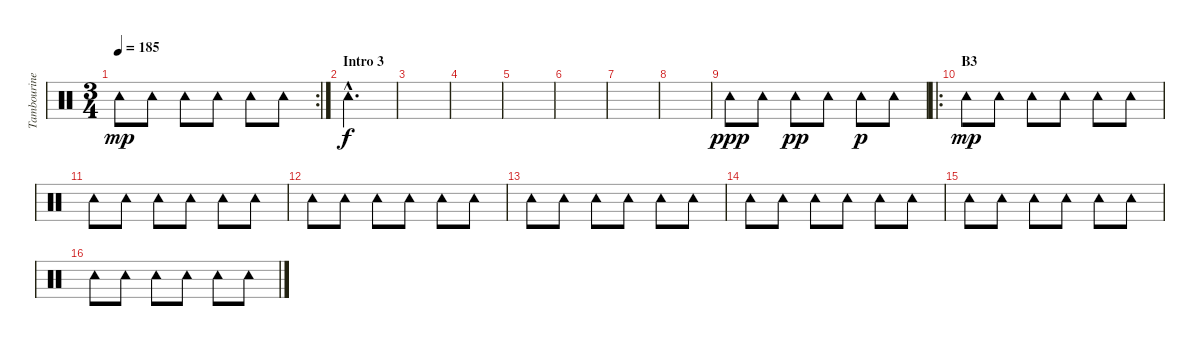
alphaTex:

\track ("Tambourine" "Tambourine") {instrument percussion}
\staff {score}
\articulation defaults
\rc 2
\ts (3 4)
\tempo 185
\clef neutral
\ks c "Tambourine (hit)".8{dy mp} "Tambourine (hit)".8 "Tambourine (hit)".8 "Tambourine (hit)".8 "Tambourine (hit)".8 "Tambourine (hit)".8
|
\section ("" "Intro 3")
"Tambourine (hit)"{hac}.2{d dy f} |
|
|
|
|
|
|
"Tambourine (hit)".8{dy ppp} "Tambourine (hit)".8 "Tambourine (hit)".8{dy pp} "Tambourine (hit)".8 "Tambourine (hit)".8{dy p} "Tambourine (hit)".8 |
\ro
\section ("" "B3")
"Tambourine (hit)".8{dy mp} "Tambourine (hit)".8 "Tambourine (hit)".8 "Tambourine (hit)".8 "Tambourine (hit)".8 "Tambourine (hit)".8 |
"Tambourine (hit)".8 "Tambourine (hit)".8 "Tambourine (hit)".8 "Tambourine (hit)".8 "Tambourine (hit)".8 "Tambourine (hit)".8 |
"Tambourine (hit)".8 "Tambourine (hit)".8 "Tambourine (hit)".8 "Tambourine (hit)".8 "Tambourine (hit)".8 "Tambourine (hit)".8 |
"Tambourine (hit)".8 "Tambourine (hit)".8 "Tambourine (hit)".8 "Tambourine (hit)".8 "Tambourine (hit)".8 "Tambourine (hit)".8 |
"Tambourine (hit)".8 "Tambourine (hit)".8 "Tambourine (hit)".8 "Tambourine (hit)".8 "Tambourine (hit)".8 "Tambourine (hit)".8 |
"Tambourine (hit)".8 "Tambourine (hit)".8 "Tambourine (hit)".8 "Tambourine (hit)".8 "Tambourine (hit)".8 "Tambourine (hit)".8 |
"Tambourine (hit)".8 "Tambourine (hit)".8 "Tambourine (hit)".8 "Tambourine (hit)".8 "Tambourine (hit)".8 "Tambourine (hit)".8
